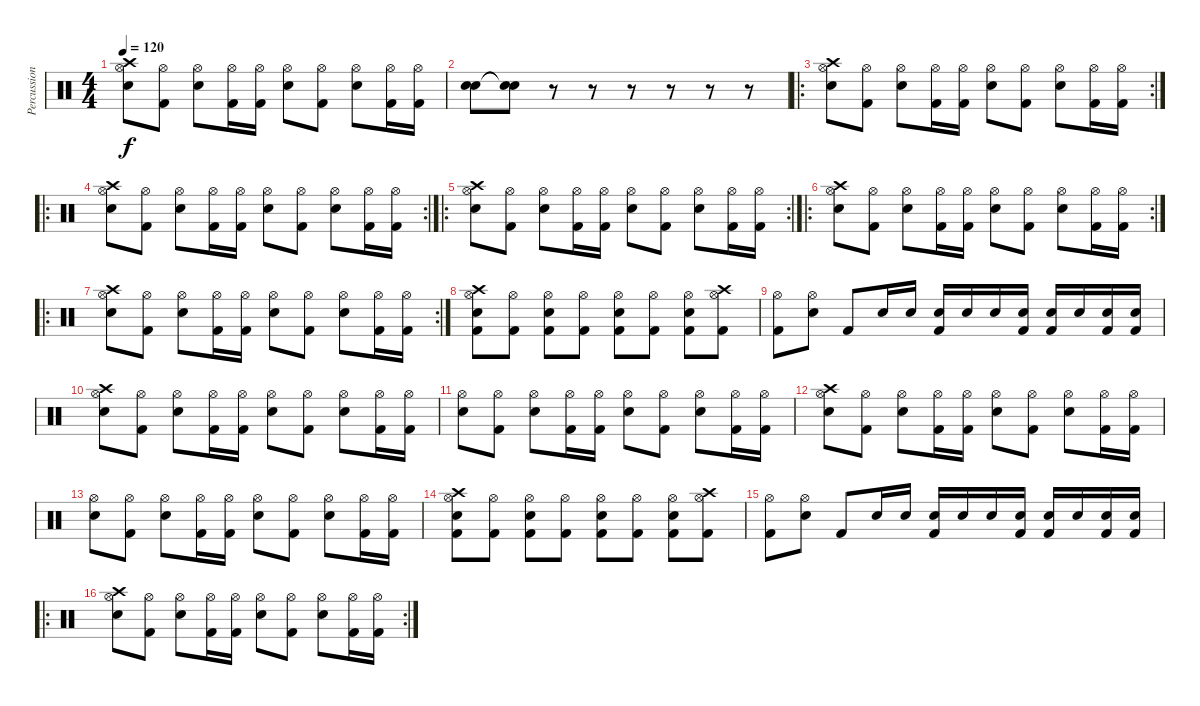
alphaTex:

\track ("Percussion" "Percussion") {instrument percussion}
\staff {score}
\articulation defaults
\ts (4 4)
\tempo 120
\clef neutral
\ks c
("Crash high (hit)" "Hi-Hat (open)" "Electric Snare (hit)").8{dy f} ("Hi-Hat (open)" "Kick (hit) 2").8 ("Hi-Hat (open)" "Electric Snare (hit)").8 ("Hi-Hat (open)" "Kick (hit) 2").16 ("Hi-Hat (open)" "Kick (hit) 2").16 ("Hi-Hat (open)" "Electric Snare (hit)").8 ("Hi-Hat (open)" "Kick (hit) 2").8 ("Hi-Hat (open)" "Electric Snare (hit)").8 ("Hi-Hat (open)" "Kick (hit) 2").16 ("Hi-Hat (open)" "Kick (hit) 2").16 |
("Electric Snare (hit)" "Electric Snare (hit)").8 ("Snare (hit)"{t} "Snare (hit)"{t}).8 r.8 r.8 r.8 r.8 r.8 r.8 |
\ro
\rc 2
("Crash high (hit)" "Hi-Hat (open)" "Electric Snare (hit)").8 ("Hi-Hat (open)" "Kick (hit) 2").8 ("Hi-Hat (open)" "Electric Snare (hit)").8 ("Hi-Hat (open)" "Kick (hit) 2").16 ("Hi-Hat (open)" "Kick (hit) 2").16 ("Hi-Hat (open)" "Electric Snare (hit)").8 ("Hi-Hat (open)" "Kick (hit) 2").8 ("Hi-Hat (open)" "Electric Snare (hit)").8 ("Hi-Hat (open)" "Kick (hit) 2").16 ("Hi-Hat (open)" "Kick (hit) 2").16 |
\ro
\rc 2
("Crash high (hit)" "Hi-Hat (open)" "Electric Snare (hit)").8 ("Hi-Hat (open)" "Kick (hit) 2").8 ("Hi-Hat (open)" "Electric Snare (hit)").8 ("Hi-Hat (open)" "Kick (hit) 2").16 ("Hi-Hat (open)" "Kick (hit) 2").16 ("Hi-Hat (open)" "Electric Snare (hit)").8 ("Hi-Hat (open)" "Kick (hit) 2").8 ("Hi-Hat (open)" "Electric Snare (hit)").8 ("Hi-Hat (open)" "Kick (hit) 2").16 ("Hi-Hat (open)" "Kick (hit) 2").16 |
\ro
\rc 2
("Crash high (hit)" "Hi-Hat (open)" "Electric Snare (hit)").8 ("Hi-Hat (open)" "Kick (hit) 2").8 ("Hi-Hat (open)" "Electric Snare (hit)").8 ("Hi-Hat (open)" "Kick (hit) 2").16 ("Hi-Hat (open)" "Kick (hit) 2").16 ("Hi-Hat (open)" "Electric Snare (hit)").8 ("Hi-Hat (open)" "Kick (hit) 2").8 ("Hi-Hat (open)" "Electric Snare (hit)").8 ("Hi-Hat (open)" "Kick (hit) 2").16 ("Hi-Hat (open)" "Kick (hit) 2").16 |
\ro
\rc 2
("Crash high (hit)" "Hi-Hat (open)" "Electric Snare (hit)").8 ("Hi-Hat (open)" "Kick (hit) 2").8 ("Hi-Hat (open)" "Electric Snare (hit)").8 ("Hi-Hat (open)" "Kick (hit) 2").16 ("Hi-Hat (open)" "Kick (hit) 2").16 ("Hi-Hat (open)" "Electric Snare (hit)").8 ("Hi-Hat (open)" "Kick (hit) 2").8 ("Hi-Hat (open)" "Electric Snare (hit)").8 ("Hi-Hat (open)" "Kick (hit) 2").16 ("Hi-Hat (open)" "Kick (hit) 2").16 |
\ro
\rc 2
("Crash high (hit)" "Hi-Hat (open)" "Electric Snare (hit)").8 ("Hi-Hat (open)" "Kick (hit) 2").8 ("Hi-Hat (open)" "Electric Snare (hit)").8 ("Hi-Hat (open)" "Kick (hit) 2").16 ("Hi-Hat (open)" "Kick (hit) 2").16 ("Hi-Hat (open)" "Electric Snare (hit)").8 ("Hi-Hat (open)" "Kick (hit) 2").8 ("Hi-Hat (open)" "Electric Snare (hit)").8 ("Hi-Hat (open)" "Kick (hit) 2").16 ("Hi-Hat (open)" "Kick (hit) 2").16 |
("Crash high (hit)" "Hi-Hat (open)" "Electric Snare (hit)" "Kick (hit) 2").8 ("Hi-Hat (open)" "Kick (hit) 2").8 ("Hi-Hat (open)" "Electric Snare (hit)" "Kick (hit) 2").8 ("Hi-Hat (open)" "Kick (hit) 2").8 ("Hi-Hat (open)" "Electric Snare (hit)" "Kick (hit) 2").8 ("Hi-Hat (open)" "Kick (hit) 2").8 ("Hi-Hat (open)" "Electric Snare (hit)" "Kick (hit) 2").8 ("Crash high (hit)" "Hi-Hat (open)" "Kick (hit) 2").8 |
("Hi-Hat (open)" "Kick (hit) 2").8 ("Hi-Hat (open)" "Electric Snare (hit)").8 "Kick (hit) 2".8 "Electric Snare (hit)".16 "Electric Snare (hit)".16 ("Electric Snare (hit)" "Kick (hit) 2").16 "Electric Snare (hit)".16 "Electric Snare (hit)".16 ("Electric Snare (hit)" "Kick (hit) 2").16 ("Electric Snare (hit)" "Kick (hit) 2").16 "Electric Snare (hit)".16 ("Electric Snare (hit)" "Kick (hit) 2").16 ("Electric Snare (hit)" "Kick (hit) 2").16 |
("Crash high (hit)" "Hi-Hat (open)" "Electric Snare (hit)").8 ("Hi-Hat (open)" "Kick (hit) 2").8 ("Hi-Hat (open)" "Electric Snare (hit)").8 ("Hi-Hat (open)" "Kick (hit) 2").16 ("Hi-Hat (open)" "Kick (hit) 2").16 ("Hi-Hat (open)" "Electric Snare (hit)").8 ("Hi-Hat (open)" "Kick (hit) 2").8 ("Hi-Hat (open)" "Electric Snare (hit)").8 ("Hi-Hat (open)" "Kick (hit) 2").16 ("Hi-Hat (open)" "Kick (hit) 2").16 |
("Hi-Hat (open)" "Electric Snare (hit)").8 ("Hi-Hat (open)" "Kick (hit) 2").8 ("Hi-Hat (open)" "Electric Snare (hit)").8 ("Hi-Hat (open)" "Kick (hit) 2").16 ("Hi-Hat (open)" "Kick (hit) 2").16 ("Hi-Hat (open)" "Electric Snare (hit)").8 ("Hi-Hat (open)" "Kick (hit) 2").8 ("Hi-Hat (open)" "Electric Snare (hit)").8 ("Hi-Hat (open)" "Kick (hit) 2").16 ("Hi-Hat (open)" "Kick (hit) 2").16 |
("Crash high (hit)" "Hi-Hat (open)" "Electric Snare (hit)").8 ("Hi-Hat (open)" "Kick (hit) 2").8 ("Hi-Hat (open)" "Electric Snare (hit)").8 ("Hi-Hat (open)" "Kick (hit) 2").16 ("Hi-Hat (open)" "Kick (hit) 2").16 ("Hi-Hat (open)" "Electric Snare (hit)").8 ("Hi-Hat (open)" "Kick (hit) 2").8 ("Hi-Hat (open)" "Electric Snare (hit)").8 ("Hi-Hat (open)" "Kick (hit) 2").16 ("Hi-Hat (open)" "Kick (hit) 2").16 |
("Hi-Hat (open)" "Electric Snare (hit)").8 ("Hi-Hat (open)" "Kick (hit) 2").8 ("Hi-Hat (open)" "Electric Snare (hit)").8 ("Hi-Hat (open)" "Kick (hit) 2").16 ("Hi-Hat (open)" "Kick (hit) 2").16 ("Hi-Hat (open)" "Electric Snare (hit)").8 ("Hi-Hat (open)" "Kick (hit) 2").8 ("Hi-Hat (open)" "Electric Snare (hit)").8 ("Hi-Hat (open)" "Kick (hit) 2").16 ("Hi-Hat (open)" "Kick (hit) 2").16 |
("Crash high (hit)" "Hi-Hat (open)" "Electric Snare (hit)" "Kick (hit) 2").8 ("Hi-Hat (open)" "Kick (hit) 2").8 ("Hi-Hat (open)" "Electric Snare (hit)" "Kick (hit) 2").8 ("Hi-Hat (open)" "Kick (hit) 2").8 ("Hi-Hat (open)" "Electric Snare (hit)" "Kick (hit) 2").8 ("Hi-Hat (open)" "Kick (hit) 2").8 ("Hi-Hat (open)" "Electric Snare (hit)" "Kick (hit) 2").8 ("Crash high (hit)" "Hi-Hat (open)" "Kick (hit) 2").8 |
("Hi-Hat (open)" "Kick (hit) 2").8 ("Hi-Hat (open)" "Electric Snare (hit)").8 "Kick (hit) 2".8 "Electric Snare (hit)".16 "Electric Snare (hit)".16 ("Electric Snare (hit)" "Kick (hit) 2").16 "Electric Snare (hit)".16 "Electric Snare (hit)".16 ("Electric Snare (hit)" "Kick (hit) 2").16 ("Electric Snare (hit)" "Kick (hit) 2").16 "Electric Snare (hit)".16 ("Electric Snare (hit)" "Kick (hit) 2").16 ("Electric Snare (hit)" "Kick (hit) 2").16 |
\ro
\rc 2
("Crash high (hit)" "Hi-Hat (open)" "Electric Snare (hit)").8 ("Hi-Hat (open)" "Kick (hit) 2").8 ("Hi-Hat (open)" "Electric Snare (hit)").8 ("Hi-Hat (open)" "Kick (hit) 2").16 ("Hi-Hat (open)" "Kick (hit) 2").16 ("Hi-Hat (open)" "Electric Snare (hit)").8 ("Hi-Hat (open)" "Kick (hit) 2").8 ("Hi-Hat (open)" "Electric Snare (hit)").8 ("Hi-Hat (open)" "Kick (hit) 2").16 ("Hi-Hat (open)" "Kick (hit) 2").16
